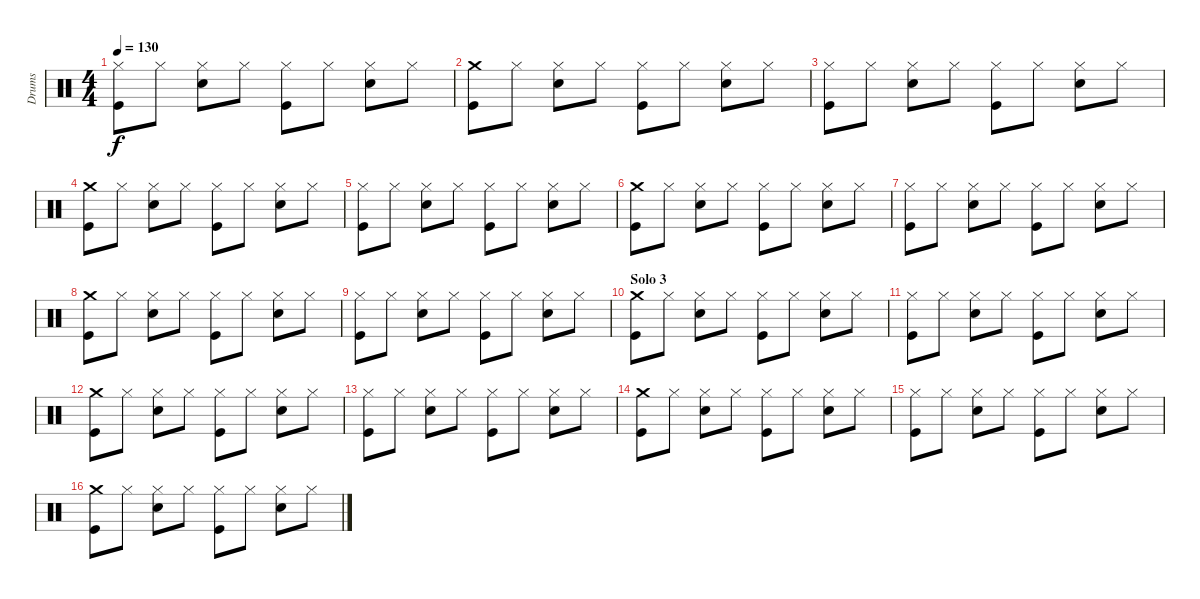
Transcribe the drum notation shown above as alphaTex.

\track ("Drums" "Drums") {instrument percussion}
\staff {score}
\articulation defaults
\ts (4 4)
\tempo 130
\clef neutral
\ks c
("Hi-Hat (closed)" "Kick (hit)").8{dy f} "Hi-Hat (closed)".8 ("Snare (hit) 2" "Hi-Hat (closed)").8 "Hi-Hat (closed)".8 ("Hi-Hat (closed)" "Kick (hit)").8 "Hi-Hat (closed)".8 ("Snare (hit) 2" "Hi-Hat (closed)").8 "Hi-Hat (closed)".8 |
("Crash medium (hit)" "Kick (hit)").8 "Hi-Hat (closed)".8 ("Snare (hit) 2" "Hi-Hat (closed)").8 "Hi-Hat (closed)".8 ("Hi-Hat (closed)" "Kick (hit)").8 "Hi-Hat (closed)".8 ("Snare (hit) 2" "Hi-Hat (closed)").8 "Hi-Hat (closed)".8 |
("Hi-Hat (closed)" "Kick (hit)").8 "Hi-Hat (closed)".8 ("Snare (hit) 2" "Hi-Hat (closed)").8 "Hi-Hat (closed)".8 ("Hi-Hat (closed)" "Kick (hit)").8 "Hi-Hat (closed)".8 ("Snare (hit) 2" "Hi-Hat (closed)").8 "Hi-Hat (closed)".8 |
("Crash medium (hit)" "Kick (hit)").8 "Hi-Hat (closed)".8 ("Snare (hit) 2" "Hi-Hat (closed)").8 "Hi-Hat (closed)".8 ("Hi-Hat (closed)" "Kick (hit)").8 "Hi-Hat (closed)".8 ("Snare (hit) 2" "Hi-Hat (closed)").8 "Hi-Hat (closed)".8 |
("Hi-Hat (closed)" "Kick (hit)").8 "Hi-Hat (closed)".8 ("Snare (hit) 2" "Hi-Hat (closed)").8 "Hi-Hat (closed)".8 ("Hi-Hat (closed)" "Kick (hit)").8 "Hi-Hat (closed)".8 ("Snare (hit) 2" "Hi-Hat (closed)").8 "Hi-Hat (closed)".8 |
("Crash medium (hit)" "Kick (hit)").8 "Hi-Hat (closed)".8 ("Snare (hit) 2" "Hi-Hat (closed)").8 "Hi-Hat (closed)".8 ("Hi-Hat (closed)" "Kick (hit)").8 "Hi-Hat (closed)".8 ("Snare (hit) 2" "Hi-Hat (closed)").8 "Hi-Hat (closed)".8 |
("Hi-Hat (closed)" "Kick (hit)").8 "Hi-Hat (closed)".8 ("Snare (hit) 2" "Hi-Hat (closed)").8 "Hi-Hat (closed)".8 ("Hi-Hat (closed)" "Kick (hit)").8 "Hi-Hat (closed)".8 ("Snare (hit) 2" "Hi-Hat (closed)").8 "Hi-Hat (closed)".8 |
("Crash medium (hit)" "Kick (hit)").8 "Hi-Hat (closed)".8 ("Snare (hit) 2" "Hi-Hat (closed)").8 "Hi-Hat (closed)".8 ("Hi-Hat (closed)" "Kick (hit)").8 "Hi-Hat (closed)".8 ("Snare (hit) 2" "Hi-Hat (closed)").8 "Hi-Hat (closed)".8 |
("Hi-Hat (closed)" "Kick (hit)").8 "Hi-Hat (closed)".8 ("Snare (hit) 2" "Hi-Hat (closed)").8 "Hi-Hat (closed)".8 ("Hi-Hat (closed)" "Kick (hit)").8 "Hi-Hat (closed)".8 ("Snare (hit) 2" "Hi-Hat (closed)").8 "Hi-Hat (closed)".8 |
\section ("" "Solo 3")
("Crash medium (hit)" "Kick (hit)").8 "Hi-Hat (closed)".8 ("Snare (hit) 2" "Hi-Hat (closed)").8 "Hi-Hat (closed)".8 ("Hi-Hat (closed)" "Kick (hit)").8 "Hi-Hat (closed)".8 ("Snare (hit) 2" "Hi-Hat (closed)").8 "Hi-Hat (closed)".8 |
("Hi-Hat (closed)" "Kick (hit)").8 "Hi-Hat (closed)".8 ("Snare (hit) 2" "Hi-Hat (closed)").8 "Hi-Hat (closed)".8 ("Hi-Hat (closed)" "Kick (hit)").8 "Hi-Hat (closed)".8 ("Snare (hit) 2" "Hi-Hat (closed)").8 "Hi-Hat (closed)".8 |
("Crash medium (hit)" "Kick (hit)").8 "Hi-Hat (closed)".8 ("Snare (hit) 2" "Hi-Hat (closed)").8 "Hi-Hat (closed)".8 ("Hi-Hat (closed)" "Kick (hit)").8 "Hi-Hat (closed)".8 ("Snare (hit) 2" "Hi-Hat (closed)").8 "Hi-Hat (closed)".8 |
("Hi-Hat (closed)" "Kick (hit)").8 "Hi-Hat (closed)".8 ("Snare (hit) 2" "Hi-Hat (closed)").8 "Hi-Hat (closed)".8 ("Hi-Hat (closed)" "Kick (hit)").8 "Hi-Hat (closed)".8 ("Snare (hit) 2" "Hi-Hat (closed)").8 "Hi-Hat (closed)".8 |
("Crash medium (hit)" "Kick (hit)").8 "Hi-Hat (closed)".8 ("Snare (hit) 2" "Hi-Hat (closed)").8 "Hi-Hat (closed)".8 ("Hi-Hat (closed)" "Kick (hit)").8 "Hi-Hat (closed)".8 ("Snare (hit) 2" "Hi-Hat (closed)").8 "Hi-Hat (closed)".8 |
("Hi-Hat (closed)" "Kick (hit)").8 "Hi-Hat (closed)".8 ("Snare (hit) 2" "Hi-Hat (closed)").8 "Hi-Hat (closed)".8 ("Hi-Hat (closed)" "Kick (hit)").8 "Hi-Hat (closed)".8 ("Snare (hit) 2" "Hi-Hat (closed)").8 "Hi-Hat (closed)".8 |
("Crash medium (hit)" "Kick (hit)").8 "Hi-Hat (closed)".8 ("Snare (hit) 2" "Hi-Hat (closed)").8 "Hi-Hat (closed)".8 ("Hi-Hat (closed)" "Kick (hit)").8 "Hi-Hat (closed)".8 ("Snare (hit) 2" "Hi-Hat (closed)").8 "Hi-Hat (closed)".8
